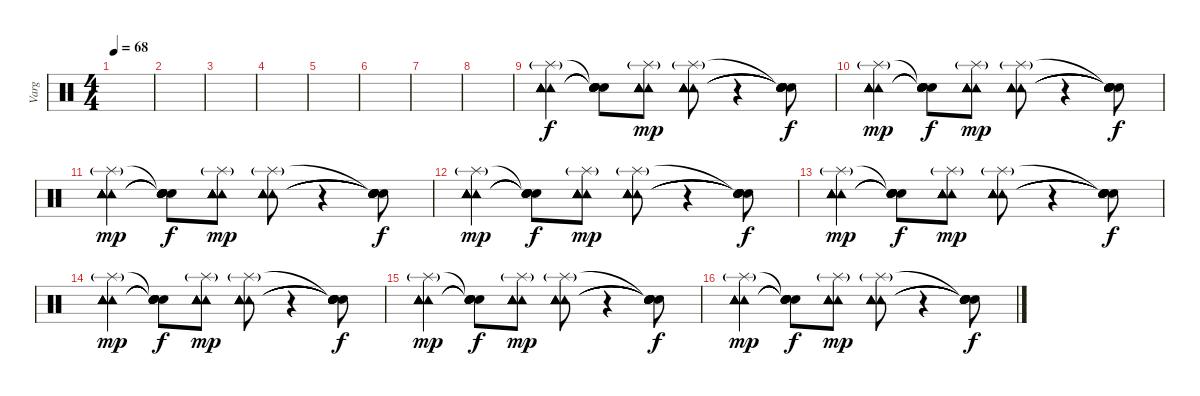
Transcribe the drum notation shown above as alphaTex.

\track ("Varg" "Varg") {instrument percussion}
\staff {score}
\articulation defaults
\ts (4 4)
\tempo 68
\clef neutral
\ks c
|
|
|
|
|
|
|
|
("Splash (hit)"{g} "Tambourine (hit)" "Tambourine (hit)" "Tambourine (hit)" "Tambourine (hit)" "Tambourine (hit)").4 ("Snare (hit)"{t} "Snare (hit)"{t} "Snare (hit)"{t} "Snare (hit)"{t} "Snare (hit)"{t}).8{dy f} ("Splash (hit)"{g} "Tambourine (hit)" "Tambourine (hit)" "Tambourine (hit)" "Tambourine (hit)" "Tambourine (hit)").8{dy mp} ("Splash (hit)"{g} "Tambourine (hit)" "Tambourine (hit)" "Tambourine (hit)" "Tambourine (hit)" "Tambourine (hit)").8 r.4 ("Snare (hit)"{t} "Snare (hit)"{t} "Snare (hit)"{t} "Snare (hit)"{t} "Snare (hit)"{t} "Snare (hit)"{t}).8{dy f} |
("Splash (hit)"{g} "Tambourine (hit)" "Tambourine (hit)" "Tambourine (hit)" "Tambourine (hit)" "Tambourine (hit)").4{dy mp} ("Snare (hit)"{t} "Snare (hit)"{t} "Snare (hit)"{t} "Snare (hit)"{t} "Snare (hit)"{t}).8{dy f} ("Splash (hit)"{g} "Tambourine (hit)" "Tambourine (hit)" "Tambourine (hit)" "Tambourine (hit)" "Tambourine (hit)").8{dy mp} ("Splash (hit)"{g} "Tambourine (hit)" "Tambourine (hit)" "Tambourine (hit)" "Tambourine (hit)" "Tambourine (hit)").8 r.4 ("Snare (hit)"{t} "Snare (hit)"{t} "Snare (hit)"{t} "Snare (hit)"{t} "Snare (hit)"{t} "Snare (hit)"{t}).8{dy f} |
("Splash (hit)"{g} "Tambourine (hit)" "Tambourine (hit)" "Tambourine (hit)" "Tambourine (hit)" "Tambourine (hit)").4{dy mp} ("Snare (hit)"{t} "Snare (hit)"{t} "Snare (hit)"{t} "Snare (hit)"{t} "Snare (hit)"{t}).8{dy f} ("Splash (hit)"{g} "Tambourine (hit)" "Tambourine (hit)" "Tambourine (hit)" "Tambourine (hit)" "Tambourine (hit)").8{dy mp} ("Splash (hit)"{g} "Tambourine (hit)" "Tambourine (hit)" "Tambourine (hit)" "Tambourine (hit)" "Tambourine (hit)").8 r.4 ("Snare (hit)"{t} "Snare (hit)"{t} "Snare (hit)"{t} "Snare (hit)"{t} "Snare (hit)"{t} "Snare (hit)"{t}).8{dy f} |
("Splash (hit)"{g} "Tambourine (hit)" "Tambourine (hit)" "Tambourine (hit)" "Tambourine (hit)" "Tambourine (hit)").4{dy mp} ("Snare (hit)"{t} "Snare (hit)"{t} "Snare (hit)"{t} "Snare (hit)"{t} "Snare (hit)"{t}).8{dy f} ("Splash (hit)"{g} "Tambourine (hit)" "Tambourine (hit)" "Tambourine (hit)" "Tambourine (hit)" "Tambourine (hit)").8{dy mp} ("Splash (hit)"{g} "Tambourine (hit)" "Tambourine (hit)" "Tambourine (hit)" "Tambourine (hit)" "Tambourine (hit)").8 r.4 ("Snare (hit)"{t} "Snare (hit)"{t} "Snare (hit)"{t} "Snare (hit)"{t} "Snare (hit)"{t} "Snare (hit)"{t}).8{dy f} |
("Splash (hit)"{g} "Tambourine (hit)" "Tambourine (hit)" "Tambourine (hit)" "Tambourine (hit)" "Tambourine (hit)").4{dy mp} ("Snare (hit)"{t} "Snare (hit)"{t} "Snare (hit)"{t} "Snare (hit)"{t} "Snare (hit)"{t}).8{dy f} ("Splash (hit)"{g} "Tambourine (hit)" "Tambourine (hit)" "Tambourine (hit)" "Tambourine (hit)" "Tambourine (hit)").8{dy mp} ("Splash (hit)"{g} "Tambourine (hit)" "Tambourine (hit)" "Tambourine (hit)" "Tambourine (hit)" "Tambourine (hit)").8 r.4 ("Snare (hit)"{t} "Snare (hit)"{t} "Snare (hit)"{t} "Snare (hit)"{t} "Snare (hit)"{t} "Snare (hit)"{t}).8{dy f} |
("Splash (hit)"{g} "Tambourine (hit)" "Tambourine (hit)" "Tambourine (hit)" "Tambourine (hit)" "Tambourine (hit)").4{dy mp} ("Snare (hit)"{t} "Snare (hit)"{t} "Snare (hit)"{t} "Snare (hit)"{t} "Snare (hit)"{t}).8{dy f} ("Splash (hit)"{g} "Tambourine (hit)" "Tambourine (hit)" "Tambourine (hit)" "Tambourine (hit)" "Tambourine (hit)").8{dy mp} ("Splash (hit)"{g} "Tambourine (hit)" "Tambourine (hit)" "Tambourine (hit)" "Tambourine (hit)" "Tambourine (hit)").8 r.4 ("Snare (hit)"{t} "Snare (hit)"{t} "Snare (hit)"{t} "Snare (hit)"{t} "Snare (hit)"{t} "Snare (hit)"{t}).8{dy f} |
("Splash (hit)"{g} "Tambourine (hit)" "Tambourine (hit)" "Tambourine (hit)" "Tambourine (hit)" "Tambourine (hit)").4{dy mp} ("Snare (hit)"{t} "Snare (hit)"{t} "Snare (hit)"{t} "Snare (hit)"{t} "Snare (hit)"{t}).8{dy f} ("Splash (hit)"{g} "Tambourine (hit)" "Tambourine (hit)" "Tambourine (hit)" "Tambourine (hit)" "Tambourine (hit)").8{dy mp} ("Splash (hit)"{g} "Tambourine (hit)" "Tambourine (hit)" "Tambourine (hit)" "Tambourine (hit)" "Tambourine (hit)").8 r.4 ("Snare (hit)"{t} "Snare (hit)"{t} "Snare (hit)"{t} "Snare (hit)"{t} "Snare (hit)"{t} "Snare (hit)"{t}).8{dy f} |
("Splash (hit)"{g} "Tambourine (hit)" "Tambourine (hit)" "Tambourine (hit)" "Tambourine (hit)" "Tambourine (hit)").4{dy mp} ("Snare (hit)"{t} "Snare (hit)"{t} "Snare (hit)"{t} "Snare (hit)"{t} "Snare (hit)"{t}).8{dy f} ("Splash (hit)"{g} "Tambourine (hit)" "Tambourine (hit)" "Tambourine (hit)" "Tambourine (hit)" "Tambourine (hit)").8{dy mp} ("Splash (hit)"{g} "Tambourine (hit)" "Tambourine (hit)" "Tambourine (hit)" "Tambourine (hit)" "Tambourine (hit)").8 r.4 ("Snare (hit)"{t} "Snare (hit)"{t} "Snare (hit)"{t} "Snare (hit)"{t} "Snare (hit)"{t} "Snare (hit)"{t}).8{dy f}
